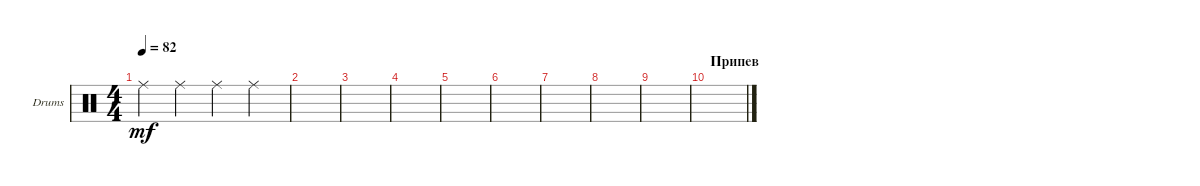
\defaultSystemsLayout 4
\bracketExtendMode groupsimilarinstruments
\firstSystemTrackNameOrientation horizontal
\otherSystemsTrackNameOrientation horizontal
\track ("Drumkit" "Drums") {instrument percussion}
\staff {score}
\articulation defaults
\ts (4 4)
\tempo 82
\clef neutral
\ks c "Ride (middle)".4{dy mf} "Ride (middle)".4 "Ride (middle)".4 "Ride (middle)".4
|
|
|
|
|
|
|
|
|
\section ("" "Припев")
